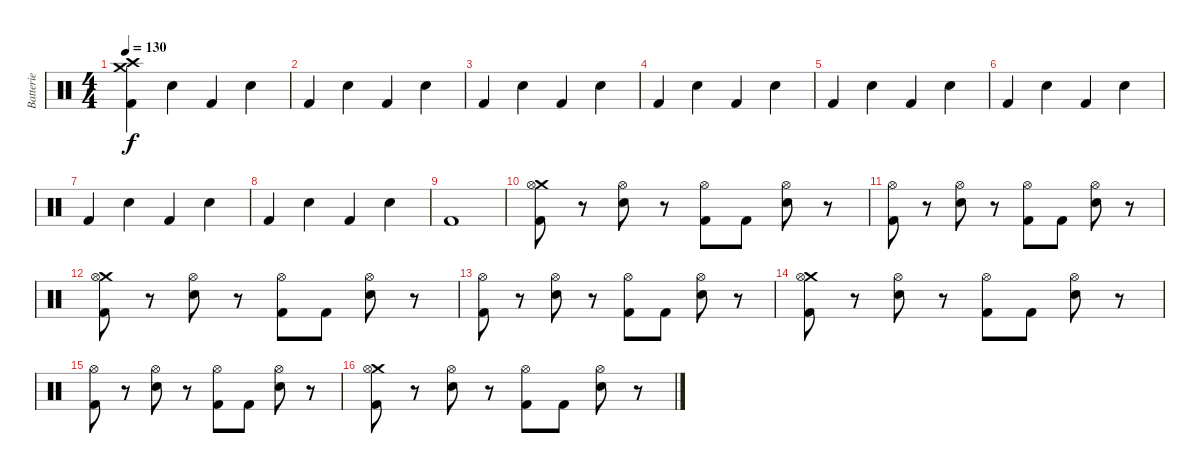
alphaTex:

\track ("Batterie" "Batterie") {instrument percussion}
\staff {score}
\articulation defaults
\ts (4 4)
\tempo 130
\clef neutral
\ks c
("Crash medium (hit)" "Crash high (hit)" "Kick (hit) 2").4{dy f} "Electric Snare (hit)".4 "Kick (hit) 2".4 "Electric Snare (hit)".4 |
"Kick (hit) 2".4 "Electric Snare (hit)".4 "Kick (hit) 2".4 "Electric Snare (hit)".4 |
"Kick (hit) 2".4 "Electric Snare (hit)".4 "Kick (hit) 2".4 "Electric Snare (hit)".4 |
"Kick (hit) 2".4 "Electric Snare (hit)".4 "Kick (hit) 2".4 "Electric Snare (hit)".4 |
"Kick (hit) 2".4 "Electric Snare (hit)".4 "Kick (hit) 2".4 "Electric Snare (hit)".4 |
"Kick (hit) 2".4 "Electric Snare (hit)".4 "Kick (hit) 2".4 "Electric Snare (hit)".4 |
"Kick (hit) 2".4 "Electric Snare (hit)".4 "Kick (hit) 2".4 "Electric Snare (hit)".4 |
"Kick (hit) 2".4 "Electric Snare (hit)".4 "Kick (hit) 2".4 "Electric Snare (hit)".4 |
"Kick (hit) 2".1 |
("Crash medium (hit)" "Hi-Hat (open)" "Kick (hit) 2").8 r.8 ("Hi-Hat (open)" "Electric Snare (hit)").8 r.8 ("Hi-Hat (open)" "Kick (hit) 2").8 "Kick (hit) 2".8 ("Hi-Hat (open)" "Electric Snare (hit)").8 r.8 |
("Hi-Hat (open)" "Kick (hit) 2").8 r.8 ("Hi-Hat (open)" "Electric Snare (hit)").8 r.8 ("Hi-Hat (open)" "Kick (hit) 2").8 "Kick (hit) 2".8 ("Hi-Hat (open)" "Electric Snare (hit)").8 r.8 |
("Crash medium (hit)" "Hi-Hat (open)" "Kick (hit) 2").8 r.8 ("Hi-Hat (open)" "Electric Snare (hit)").8 r.8 ("Hi-Hat (open)" "Kick (hit) 2").8 "Kick (hit) 2".8 ("Hi-Hat (open)" "Electric Snare (hit)").8 r.8 |
("Hi-Hat (open)" "Kick (hit) 2").8 r.8 ("Hi-Hat (open)" "Electric Snare (hit)").8 r.8 ("Hi-Hat (open)" "Kick (hit) 2").8 "Kick (hit) 2".8 ("Hi-Hat (open)" "Electric Snare (hit)").8 r.8 |
("Crash medium (hit)" "Hi-Hat (open)" "Kick (hit) 2").8 r.8 ("Hi-Hat (open)" "Electric Snare (hit)").8 r.8 ("Hi-Hat (open)" "Kick (hit) 2").8 "Kick (hit) 2".8 ("Hi-Hat (open)" "Electric Snare (hit)").8 r.8 |
("Hi-Hat (open)" "Kick (hit) 2").8 r.8 ("Hi-Hat (open)" "Electric Snare (hit)").8 r.8 ("Hi-Hat (open)" "Kick (hit) 2").8 "Kick (hit) 2".8 ("Hi-Hat (open)" "Electric Snare (hit)").8 r.8 |
("Crash medium (hit)" "Hi-Hat (open)" "Kick (hit) 2").8 r.8 ("Hi-Hat (open)" "Electric Snare (hit)").8 r.8 ("Hi-Hat (open)" "Kick (hit) 2").8 "Kick (hit) 2".8 ("Hi-Hat (open)" "Electric Snare (hit)").8 r.8
